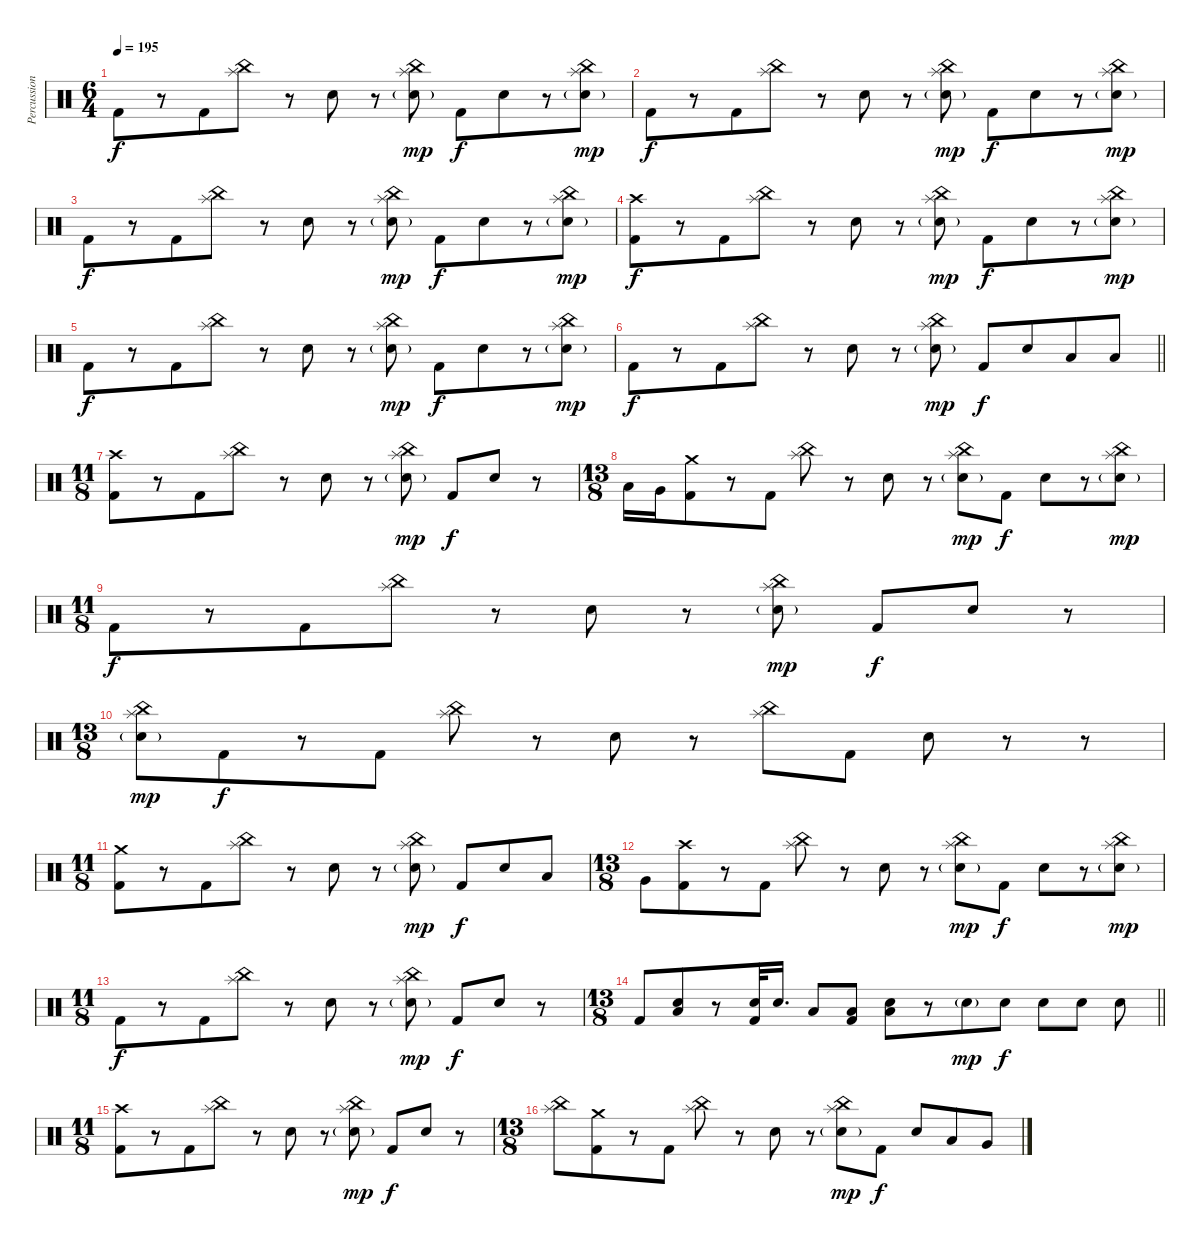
\track ("Percussion" "Percussion") {instrument percussion bank 237}
\staff {score}
\articulation defaults
\ts (6 4)
\tempo 195
\clef neutral
\ks c "Kick (hit) 2".8{dy f beam merge}
r.8{beam merge} "Kick (hit) 2".8 ("Splash (hit)" "China (hit)").8 r.8 "Electric Snare (hit)".8 r.8 ("Splash (hit)" "China (hit)" "Electric Snare (hit)"{g}).8{dy mp} "Kick (hit) 2".8{dy f} "Electric Snare (hit)".8{beam merge} r.8{beam merge} ("Splash (hit)" "China (hit)" "Electric Snare (hit)"{g}).8{dy mp} |
"Kick (hit) 2".8{dy f beam merge} r.8{beam merge} "Kick (hit) 2".8 ("Splash (hit)" "China (hit)").8 r.8 "Electric Snare (hit)".8 r.8{beam merge} ("Splash (hit)" "China (hit)" "Electric Snare (hit)"{g}).8{dy mp} "Kick (hit) 2".8{dy f} "Electric Snare (hit)".8{beam merge} r.8{beam merge} ("Splash (hit)" "China (hit)" "Electric Snare (hit)"{g}).8{dy mp} |
"Kick (hit) 2".8{dy f beam merge} r.8{beam merge} "Kick (hit) 2".8 ("Splash (hit)" "China (hit)").8 r.8 "Electric Snare (hit)".8 r.8{beam merge} ("Splash (hit)" "China (hit)" "Electric Snare (hit)"{g}).8{dy mp} "Kick (hit) 2".8{dy f} "Electric Snare (hit)".8{beam merge} r.8{beam merge} ("Splash (hit)" "China (hit)" "Electric Snare (hit)"{g}).8{dy mp} |
("Crash high (hit)" "Kick (hit) 2").8{dy f beam merge} r.8{beam merge} "Kick (hit) 2".8 ("Splash (hit)" "China (hit)").8 r.8 "Electric Snare (hit)".8 r.8 ("Splash (hit)" "China (hit)" "Electric Snare (hit)"{g}).8{dy mp} "Kick (hit) 2".8{dy f} "Electric Snare (hit)".8{beam merge} r.8{beam merge} ("Splash (hit)" "China (hit)" "Electric Snare (hit)"{g}).8{dy mp} |
"Kick (hit) 2".8{dy f beam merge} r.8{beam merge} "Kick (hit) 2".8 ("Splash (hit)" "China (hit)").8 r.8 "Electric Snare (hit)".8 r.8{beam merge} ("Splash (hit)" "China (hit)" "Electric Snare (hit)"{g}).8{dy mp} "Kick (hit) 2".8{dy f} "Electric Snare (hit)".8{beam merge} r.8{beam merge} ("Splash (hit)" "China (hit)" "Electric Snare (hit)"{g}).8{dy mp} |
\barLineRight lightlight "Kick (hit) 2".8{dy f beam merge}
r.8{beam merge} "Kick (hit) 2".8 ("Splash (hit)" "China (hit)").8 r.8 "Electric Snare (hit)".8 r.8 ("Splash (hit)" "China (hit)" "Electric Snare (hit)"{g}).8{dy mp} "Kick (hit) 2".8{dy f} "Electric Snare (hit)".8{beam merge} "Low Tom (hit)".8{beam merge} "Low Floor Tom (hit)".8 |
\ts (11 8)
\section ("" "")
("Crash high (hit)" "Kick (hit) 2").8{beam merge} r.8{beam merge} "Kick (hit) 2".8 ("Splash (hit)" "China (hit)").8 r.8 "Electric Snare (hit)".8 r.8{beam merge} ("Splash (hit)" "China (hit)" "Electric Snare (hit)"{g}).8{dy mp} "Kick (hit) 2".8{dy f} "Electric Snare (hit)".8{beam merge} r.8 |
\ts (13 8)
"Low Tom (hit)".16{beam merge} "Very Low Tom (hit)".16 ("Crash medium (hit)" "Kick (hit) 2").8{beam merge} r.8{beam merge} "Kick (hit) 2".8 ("Splash (hit)" "China (hit)").8 r.8 "Electric Snare (hit)".8 r.8 ("Splash (hit)" "China (hit)" "Electric Snare (hit)"{g}).8{dy mp} "Kick (hit) 2".8{dy f} "Electric Snare (hit)".8{beam merge} r.8{beam merge} ("Splash (hit)" "China (hit)" "Electric Snare (hit)"{g}).8{dy mp} |
\ts (11 8)
"Kick (hit) 2".8{dy f beam merge} r.8{beam merge} "Kick (hit) 2".8 ("Splash (hit)" "China (hit)").8 r.8 "Electric Snare (hit)".8 r.8{beam merge} ("Splash (hit)" "China (hit)" "Electric Snare (hit)"{g}).8{dy mp} "Kick (hit) 2".8{dy f} "Electric Snare (hit)".8{beam merge} r.8 |
\ts (13 8)
("Splash (hit)" "China (hit)" "Electric Snare (hit)"{g}).8{dy mp} "Kick (hit) 2".8{dy f beam merge} r.8{beam merge} "Kick (hit) 2".8 ("Splash (hit)" "China (hit)").8 r.8 "Electric Snare (hit)".8 r.8 ("Splash (hit)" "China (hit)").8 "Kick (hit) 2".8 "Electric Snare (hit)".8{beam merge} r.8 r.8 |
\ts (11 8)
("Crash medium (hit)" "Kick (hit) 2").8{beam merge} r.8{beam merge} "Kick (hit) 2".8 ("Splash (hit)" "China (hit)").8 r.8 "Electric Snare (hit)".8 r.8{beam merge} ("Splash (hit)" "China (hit)" "Electric Snare (hit)"{g}).8{dy mp} "Kick (hit) 2".8{dy f} "Electric Snare (hit)".8{beam merge} "Low Tom (hit)".8 |
\ts (13 8)
"Very Low Tom (hit)".8 ("Crash high (hit)" "Kick (hit) 2").8{beam merge} r.8{beam merge} "Kick (hit) 2".8 ("Splash (hit)" "China (hit)").8 r.8 "Electric Snare (hit)".8 r.8 ("Splash (hit)" "China (hit)" "Electric Snare (hit)"{g}).8{dy mp} "Kick (hit) 2".8{dy f} "Electric Snare (hit)".8{beam merge} r.8{beam merge} ("Splash (hit)" "China (hit)" "Electric Snare (hit)"{g}).8{dy mp} |
\ts (11 8)
"Kick (hit) 2".8{dy f beam merge} r.8{beam merge} "Kick (hit) 2".8 ("Splash (hit)" "China (hit)").8 r.8 "Electric Snare (hit)".8 r.8{beam merge} ("Splash (hit)" "China (hit)" "Electric Snare (hit)"{g}).8{dy mp} "Kick (hit) 2".8{dy f} "Electric Snare (hit)".8{beam merge} r.8 |
\ts (13 8)
\barLineRight lightlight "Kick (hit) 2".8
("Electric Snare (hit)" "Low Floor Tom (hit)").8{beam merge} r.8{beam merge} ("Electric Snare (hit)" "Kick (hit) 2").32 "Electric Snare (hit)".16{d} "Low Tom (hit)".8 ("Low Floor Tom (hit)" "Kick (hit) 2").8 ("Electric Snare (hit)" "Low Floor Tom (hit)").8{beam merge} r.8 "Electric Snare (hit)"{g}.8{dy mp} "Electric Snare (hit)".8{dy f} "Electric Snare (hit)".8 "Electric Snare (hit)".8 "Electric Snare (hit)".8 |
\ts (11 8)
\section ("" "")
("Crash high (hit)" "Kick (hit) 2").8{beam merge} r.8{beam merge} "Kick (hit) 2".8 ("Splash (hit)" "China (hit)").8 r.8 "Electric Snare (hit)".8 r.8{beam merge} ("Splash (hit)" "China (hit)" "Electric Snare (hit)"{g}).8{dy mp} "Kick (hit) 2".8{dy f} "Electric Snare (hit)".8{beam merge} r.8 |
\ts (13 8)
("Splash (hit)" "China (hit)").8 ("Crash medium (hit)" "Kick (hit) 2").8{beam merge} r.8{beam merge} "Kick (hit) 2".8 ("Splash (hit)" "China (hit)").8 r.8 "Electric Snare (hit)".8 r.8 ("Splash (hit)" "China (hit)" "Electric Snare (hit)"{g}).8{dy mp} "Kick (hit) 2".8{dy f} "Electric Snare (hit)".8{beam merge} "Low Tom (hit)".8{beam merge} "Very Low Tom (hit)".8
